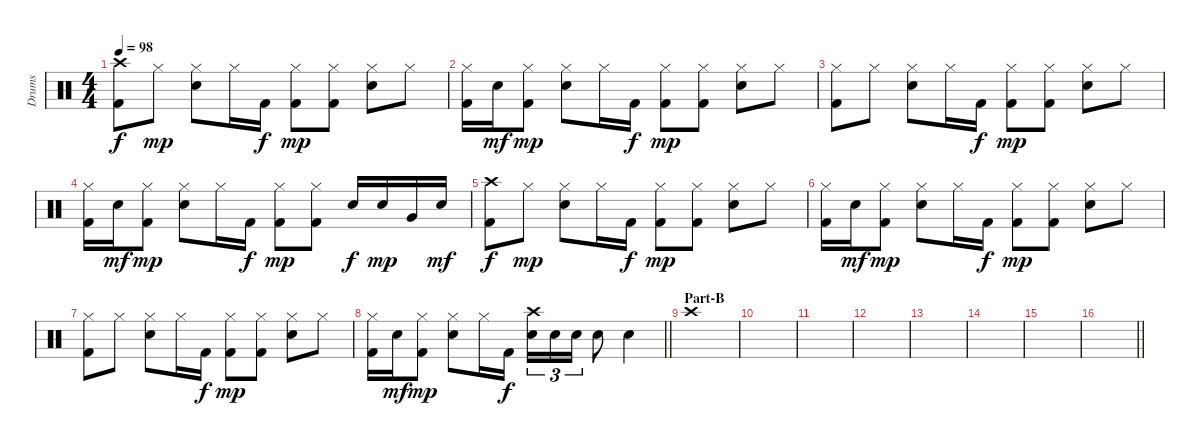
\track ("Drums" "Drums") {instrument percussion}
\staff {score}
\articulation defaults
\ts (4 4)
\tempo 98
\clef neutral
\ks c
("Crash high (hit)" "Kick (hit) 2").8{dy f} "Hi-Hat (closed)".8{dy mp} ("Hi-Hat (closed)" "Snare (hit) 2").8 "Hi-Hat (closed)".16 "Kick (hit) 2".16{dy f} ("Hi-Hat (closed)" "Kick (hit) 2").8{dy mp} ("Hi-Hat (closed)" "Kick (hit) 2").8 ("Hi-Hat (closed)" "Snare (hit) 2").8 "Hi-Hat (closed)".8 |
("Hi-Hat (closed)" "Kick (hit) 2").16 "Snare (hit) 2".16{dy mf} ("Hi-Hat (closed)" "Kick (hit) 2").8{dy mp} ("Hi-Hat (closed)" "Snare (hit) 2").8 "Hi-Hat (closed)".16 "Kick (hit) 2".16{dy f} ("Hi-Hat (closed)" "Kick (hit) 2").8{dy mp} ("Hi-Hat (closed)" "Kick (hit) 2").8 ("Hi-Hat (closed)" "Snare (hit) 2").8 "Hi-Hat (closed)".8 |
("Hi-Hat (closed)" "Kick (hit) 2").8 "Hi-Hat (closed)".8 ("Hi-Hat (closed)" "Snare (hit) 2").8 "Hi-Hat (closed)".16 "Kick (hit) 2".16{dy f} ("Hi-Hat (closed)" "Kick (hit) 2").8{dy mp} ("Hi-Hat (closed)" "Kick (hit) 2").8 ("Hi-Hat (closed)" "Snare (hit) 2").8 "Hi-Hat (closed)".8 |
("Hi-Hat (closed)" "Kick (hit) 2").16 "Snare (hit) 2".16{dy mf} ("Hi-Hat (closed)" "Kick (hit) 2").8{dy mp} ("Hi-Hat (closed)" "Snare (hit) 2").8 "Hi-Hat (closed)".16 "Kick (hit) 2".16{dy f} ("Hi-Hat (closed)" "Kick (hit) 2").8{dy mp} ("Hi-Hat (closed)" "Kick (hit) 2").8 "Snare (hit) 2".16{dy f} "Snare (hit) 2".16{dy mp} "Very Low Tom (hit)".16 "Snare (hit) 2".16{dy mf} |
("Crash high (hit)" "Kick (hit) 2").8{dy f} "Hi-Hat (closed)".8{dy mp} ("Hi-Hat (closed)" "Snare (hit) 2").8 "Hi-Hat (closed)".16 "Kick (hit) 2".16{dy f} ("Hi-Hat (closed)" "Kick (hit) 2").8{dy mp} ("Hi-Hat (closed)" "Kick (hit) 2").8 ("Hi-Hat (closed)" "Snare (hit) 2").8 "Hi-Hat (closed)".8 |
("Hi-Hat (closed)" "Kick (hit) 2").16 "Snare (hit) 2".16{dy mf} ("Hi-Hat (closed)" "Kick (hit) 2").8{dy mp} ("Hi-Hat (closed)" "Snare (hit) 2").8 "Hi-Hat (closed)".16 "Kick (hit) 2".16{dy f} ("Hi-Hat (closed)" "Kick (hit) 2").8{dy mp} ("Hi-Hat (closed)" "Kick (hit) 2").8 ("Hi-Hat (closed)" "Snare (hit) 2").8 "Hi-Hat (closed)".8 |
("Hi-Hat (closed)" "Kick (hit) 2").8 "Hi-Hat (closed)".8 ("Hi-Hat (closed)" "Snare (hit) 2").8 "Hi-Hat (closed)".16 "Kick (hit) 2".16{dy f} ("Hi-Hat (closed)" "Kick (hit) 2").8{dy mp} ("Hi-Hat (closed)" "Kick (hit) 2").8 ("Hi-Hat (closed)" "Snare (hit) 2").8 "Hi-Hat (closed)".8 |
\barLineRight lightlight
("Hi-Hat (closed)" "Kick (hit) 2").16 "Snare (hit) 2".16{dy mf} ("Hi-Hat (closed)" "Kick (hit) 2").8{dy mp} ("Hi-Hat (closed)" "Snare (hit) 2").8 "Hi-Hat (closed)".16 "Kick (hit) 2".16{dy f} ("Crash high (hit)" "Snare (hit) 2").16{tu (3 2)} "Snare (hit) 2".16{tu (3 2)} "Snare (hit) 2".16{tu (3 2)} "Snare (hit) 2".8 "Snare (hit) 2".4 |
\section ("" "Part-B")
"Crash high (hit)".1 |
|
|
|
|
|
|
\barLineRight lightlight
